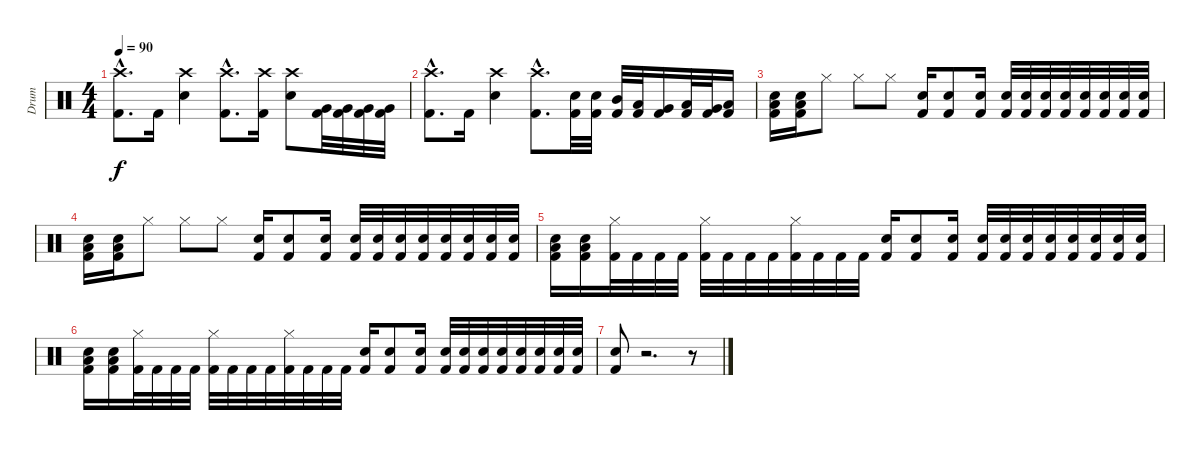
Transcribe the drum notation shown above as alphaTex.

\track ("Drum" "Drum") {instrument percussion}
\staff {score}
\articulation defaults
\ts (4 4)
\tempo 90
\clef neutral
\ks c
("Crash high (hit)"{hac} "Kick (hit) 2"{hac}).8{d dy f} "Kick (hit) 2".16 ("Crash high (hit)" "Electric Snare (hit)").4 ("Crash high (hit)"{hac} "Kick (hit) 2"{hac}).8{d} ("Crash high (hit)" "Kick (hit) 2").16 ("Crash high (hit)" "Electric Snare (hit)").8 ("Very Low Tom (hit)" "Kick (hit) 2").32 ("Very Low Tom (hit)" "Kick (hit) 2").32 ("Very Low Tom (hit)" "Kick (hit) 2").32 ("Very Low Tom (hit)" "Kick (hit) 2").32 |
("Crash high (hit)"{hac} "Kick (hit) 2"{hac}).8{d} "Kick (hit) 2".16 ("Crash high (hit)" "Electric Snare (hit)").4 ("Crash high (hit)"{hac} "Kick (hit) 2"{hac}).8{d} ("Electric Snare (hit)" "Kick (hit) 2").32 ("Electric Snare (hit)" "Kick (hit) 2").32 ("Mid Tom (hit)" "Kick (hit) 2").32 ("Low Tom (hit)" "Kick (hit) 2").32 ("Very Low Tom (hit)" "Kick (hit) 2").16 ("Low Tom (hit)" "Kick (hit) 2").32 ("Very Low Tom (hit)" "Kick (hit) 2").32 ("Low Floor Tom (hit)" "Kick (hit) 2").16 |
("Low Floor Tom (hit)" "Electric Snare (hit)" "Kick (hit) 2").16 ("Low Floor Tom (hit)" "Electric Snare (hit)" "Kick (hit) 2").16 "Hi-Hat (closed)".8 "Hi-Hat (closed)".8 "Hi-Hat (closed)".8 ("Electric Snare (hit)" "Kick (hit) 2").16 ("Electric Snare (hit)" "Kick (hit) 2").8 ("Electric Snare (hit)" "Kick (hit) 2").16 ("Electric Snare (hit)" "Kick (hit) 2").32 ("Electric Snare (hit)" "Kick (hit) 2").32 ("Electric Snare (hit)" "Kick (hit) 2").32 ("Electric Snare (hit)" "Kick (hit) 2").32 ("Electric Snare (hit)" "Kick (hit) 2").32 ("Electric Snare (hit)" "Kick (hit) 2").32 ("Electric Snare (hit)" "Kick (hit) 2").32 ("Electric Snare (hit)" "Kick (hit) 2").32 |
("Low Floor Tom (hit)" "Electric Snare (hit)" "Kick (hit) 2").16 ("Low Floor Tom (hit)" "Electric Snare (hit)" "Kick (hit) 2").16 "Hi-Hat (closed)".8 "Hi-Hat (closed)".8 "Hi-Hat (closed)".8 ("Electric Snare (hit)" "Kick (hit) 2").16 ("Electric Snare (hit)" "Kick (hit) 2").8 ("Electric Snare (hit)" "Kick (hit) 2").16 ("Electric Snare (hit)" "Kick (hit) 2").32 ("Electric Snare (hit)" "Kick (hit) 2").32 ("Electric Snare (hit)" "Kick (hit) 2").32 ("Electric Snare (hit)" "Kick (hit) 2").32 ("Electric Snare (hit)" "Kick (hit) 2").32 ("Electric Snare (hit)" "Kick (hit) 2").32 ("Electric Snare (hit)" "Kick (hit) 2").32 ("Electric Snare (hit)" "Kick (hit) 2").32 |
("Low Floor Tom (hit)" "Electric Snare (hit)" "Kick (hit) 2").16 ("Low Floor Tom (hit)" "Electric Snare (hit)" "Kick (hit) 2").16 ("Hi-Hat (closed)" "Kick (hit) 2").32 "Kick (hit) 2".32 "Kick (hit) 2".32 "Kick (hit) 2".32 ("Hi-Hat (closed)" "Kick (hit) 2").32 "Kick (hit) 2".32 "Kick (hit) 2".32 "Kick (hit) 2".32 ("Hi-Hat (closed)" "Kick (hit) 2").32 "Kick (hit) 2".32 "Kick (hit) 2".32 "Kick (hit) 2".32 ("Electric Snare (hit)" "Kick (hit) 2").16 ("Electric Snare (hit)" "Kick (hit) 2").8 ("Electric Snare (hit)" "Kick (hit) 2").16 ("Electric Snare (hit)" "Kick (hit) 2").32 ("Electric Snare (hit)" "Kick (hit) 2").32 ("Electric Snare (hit)" "Kick (hit) 2").32 ("Electric Snare (hit)" "Kick (hit) 2").32 ("Electric Snare (hit)" "Kick (hit) 2").32 ("Electric Snare (hit)" "Kick (hit) 2").32 ("Electric Snare (hit)" "Kick (hit) 2").32 ("Electric Snare (hit)" "Kick (hit) 2").32 |
("Low Floor Tom (hit)" "Electric Snare (hit)" "Kick (hit) 2").16 ("Low Floor Tom (hit)" "Electric Snare (hit)" "Kick (hit) 2").16 ("Hi-Hat (closed)" "Kick (hit) 2").32 "Kick (hit) 2".32 "Kick (hit) 2".32 "Kick (hit) 2".32 ("Hi-Hat (closed)" "Kick (hit) 2").32 "Kick (hit) 2".32 "Kick (hit) 2".32 "Kick (hit) 2".32 ("Hi-Hat (closed)" "Kick (hit) 2").32 "Kick (hit) 2".32 "Kick (hit) 2".32 "Kick (hit) 2".32 ("Electric Snare (hit)" "Kick (hit) 2").16 ("Electric Snare (hit)" "Kick (hit) 2").8 ("Electric Snare (hit)" "Kick (hit) 2").16 ("Electric Snare (hit)" "Kick (hit) 2").32 ("Electric Snare (hit)" "Kick (hit) 2").32 ("Electric Snare (hit)" "Kick (hit) 2").32 ("Electric Snare (hit)" "Kick (hit) 2").32 ("Electric Snare (hit)" "Kick (hit) 2").32 ("Electric Snare (hit)" "Kick (hit) 2").32 ("Electric Snare (hit)" "Kick (hit) 2").32 ("Electric Snare (hit)" "Kick (hit) 2").32 |
("Electric Snare (hit)" "Kick (hit) 2").8 r.2{d} r.8
